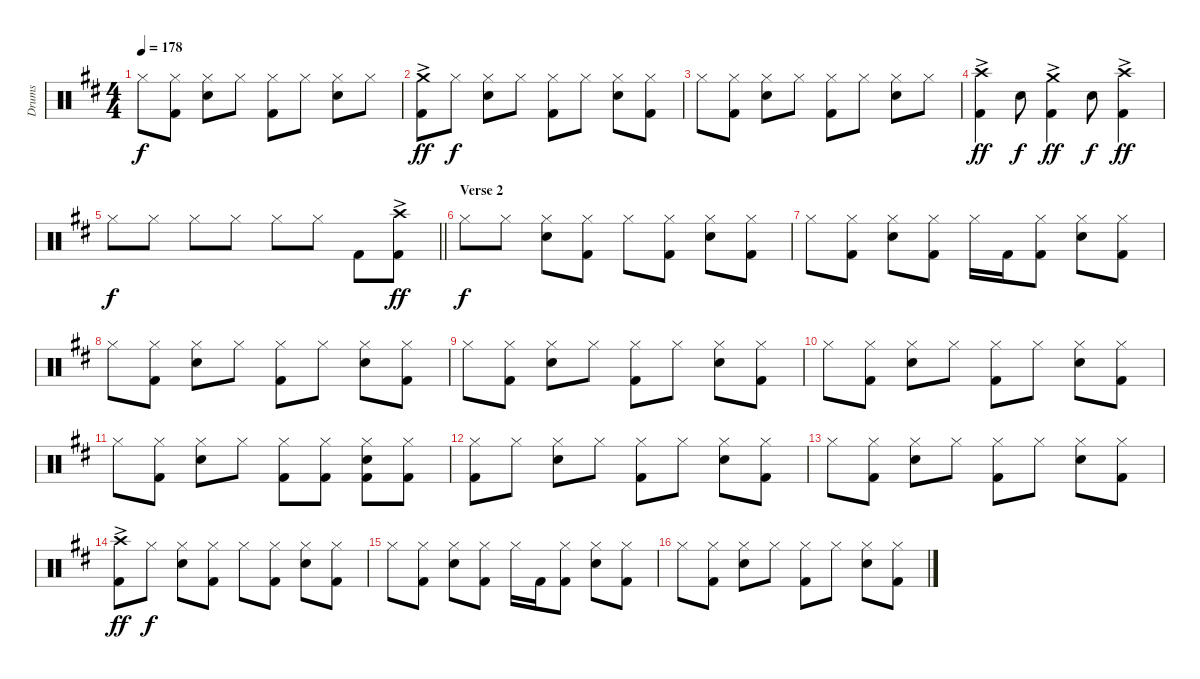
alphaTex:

\track ("Drums" "Drums") {instrument percussion}
\staff {score}
\articulation defaults
\ts (4 4)
\tempo 178
\clef neutral
\ks d "Hi-Hat (closed)".8{dy f}
("Hi-Hat (closed)" "Kick (hit) 2").8 ("Hi-Hat (closed)" "Electric Snare (hit)").8 "Hi-Hat (closed)".8 ("Hi-Hat (closed)" "Kick (hit) 2").8 "Hi-Hat (closed)".8 ("Hi-Hat (closed)" "Electric Snare (hit)").8 "Hi-Hat (closed)".8 |
("Crash medium (hit)"{ac} "Kick (hit) 2").8{dy ff} "Hi-Hat (closed)".8{dy f} ("Hi-Hat (closed)" "Electric Snare (hit)").8 "Hi-Hat (closed)".8 ("Hi-Hat (closed)" "Kick (hit) 2").8 "Hi-Hat (closed)".8 ("Hi-Hat (closed)" "Electric Snare (hit)").8 ("Hi-Hat (closed)" "Kick (hit) 2").8 |
"Hi-Hat (closed)".8 ("Hi-Hat (closed)" "Kick (hit) 2").8 ("Hi-Hat (closed)" "Electric Snare (hit)").8 "Hi-Hat (closed)".8 ("Hi-Hat (closed)" "Kick (hit) 2").8 "Hi-Hat (closed)".8 ("Hi-Hat (closed)" "Electric Snare (hit)").8 "Hi-Hat (closed)".8 |
("Crash high (hit)"{ac} "Kick (hit) 2").4{dy ff} "Electric Snare (hit)".8{dy f} ("Crash medium (hit)"{ac} "Kick (hit) 2").4{dy ff} "Electric Snare (hit)".8{dy f} ("Crash high (hit)"{ac} "Kick (hit) 2").4{dy ff} |
\barLineRight lightlight "Hi-Hat (closed)".8{dy f} "Hi-Hat (closed)".8 "Hi-Hat (closed)".8 "Hi-Hat (closed)".8 "Hi-Hat (closed)".8 "Hi-Hat (closed)".8 "Kick (hit) 2".8
("Crash high (hit)"{ac} "Kick (hit) 2").8{dy ff} |
\section ("" "Verse 2")
"Hi-Hat (closed)".8{dy f} "Hi-Hat (closed)".8 ("Hi-Hat (closed)" "Electric Snare (hit)").8 ("Hi-Hat (closed)" "Kick (hit) 2").8 "Hi-Hat (closed)".8 ("Hi-Hat (closed)" "Kick (hit) 2").8 ("Hi-Hat (closed)" "Electric Snare (hit)").8 ("Hi-Hat (closed)" "Kick (hit) 2").8 |
"Hi-Hat (closed)".8 ("Hi-Hat (closed)" "Kick (hit) 2").8 ("Hi-Hat (closed)" "Electric Snare (hit)").8 ("Hi-Hat (closed)" "Kick (hit) 2").8 "Hi-Hat (closed)".16 "Kick (hit) 2".16 ("Hi-Hat (closed)" "Kick (hit) 2").8 ("Hi-Hat (closed)" "Electric Snare (hit)").8 ("Hi-Hat (closed)" "Kick (hit) 2").8 |
"Hi-Hat (closed)".8 ("Hi-Hat (closed)" "Kick (hit) 2").8 ("Hi-Hat (closed)" "Electric Snare (hit)").8 "Hi-Hat (closed)".8 ("Hi-Hat (closed)" "Kick (hit) 2").8 "Hi-Hat (closed)".8 ("Hi-Hat (closed)" "Electric Snare (hit)").8 ("Hi-Hat (closed)" "Kick (hit) 2").8 |
"Hi-Hat (closed)".8 ("Hi-Hat (closed)" "Kick (hit) 2").8 ("Hi-Hat (closed)" "Electric Snare (hit)").8 "Hi-Hat (closed)".8 ("Hi-Hat (closed)" "Kick (hit) 2").8 "Hi-Hat (closed)".8 ("Hi-Hat (closed)" "Electric Snare (hit)").8 ("Hi-Hat (closed)" "Kick (hit) 2").8 |
"Hi-Hat (closed)".8 ("Hi-Hat (closed)" "Kick (hit) 2").8 ("Hi-Hat (closed)" "Electric Snare (hit)").8 "Hi-Hat (closed)".8 ("Hi-Hat (closed)" "Kick (hit) 2").8 "Hi-Hat (closed)".8 ("Hi-Hat (closed)" "Electric Snare (hit)").8 ("Hi-Hat (closed)" "Kick (hit) 2").8 |
"Hi-Hat (closed)".8 ("Hi-Hat (closed)" "Kick (hit) 2").8 ("Hi-Hat (closed)" "Electric Snare (hit)").8 "Hi-Hat (closed)".8 ("Hi-Hat (closed)" "Kick (hit) 2").8 ("Hi-Hat (closed)" "Kick (hit) 2").8 ("Hi-Hat (closed)" "Electric Snare (hit)" "Kick (hit) 2").8 ("Hi-Hat (closed)" "Kick (hit) 2").8 |
("Hi-Hat (closed)" "Kick (hit) 2").8 "Hi-Hat (closed)".8 ("Hi-Hat (closed)" "Electric Snare (hit)").8 "Hi-Hat (closed)".8 ("Hi-Hat (closed)" "Kick (hit) 2").8 "Hi-Hat (closed)".8 ("Hi-Hat (closed)" "Electric Snare (hit)").8 ("Hi-Hat (closed)" "Kick (hit) 2").8 |
"Hi-Hat (closed)".8 ("Hi-Hat (closed)" "Kick (hit) 2").8 ("Hi-Hat (closed)" "Electric Snare (hit)").8 "Hi-Hat (closed)".8 ("Hi-Hat (closed)" "Kick (hit) 2").8 "Hi-Hat (closed)".8 ("Hi-Hat (closed)" "Electric Snare (hit)").8 ("Hi-Hat (closed)" "Kick (hit) 2").8 |
("Crash high (hit)"{ac} "Kick (hit) 2").8{dy ff} "Hi-Hat (closed)".8{dy f} ("Hi-Hat (closed)" "Electric Snare (hit)").8 ("Hi-Hat (closed)" "Kick (hit) 2").8 "Hi-Hat (closed)".8 ("Hi-Hat (closed)" "Kick (hit) 2").8 ("Hi-Hat (closed)" "Electric Snare (hit)").8 ("Hi-Hat (closed)" "Kick (hit) 2").8 |
"Hi-Hat (closed)".8 ("Hi-Hat (closed)" "Kick (hit) 2").8 ("Hi-Hat (closed)" "Electric Snare (hit)").8 ("Hi-Hat (closed)" "Kick (hit) 2").8 "Hi-Hat (closed)".16 "Kick (hit) 2".16 ("Hi-Hat (closed)" "Kick (hit) 2").8 ("Hi-Hat (closed)" "Electric Snare (hit)").8 ("Hi-Hat (closed)" "Kick (hit) 2").8 |
"Hi-Hat (closed)".8 ("Hi-Hat (closed)" "Kick (hit) 2").8 ("Hi-Hat (closed)" "Electric Snare (hit)").8 "Hi-Hat (closed)".8 ("Hi-Hat (closed)" "Kick (hit) 2").8 "Hi-Hat (closed)".8 ("Hi-Hat (closed)" "Electric Snare (hit)").8 ("Hi-Hat (closed)" "Kick (hit) 2").8
